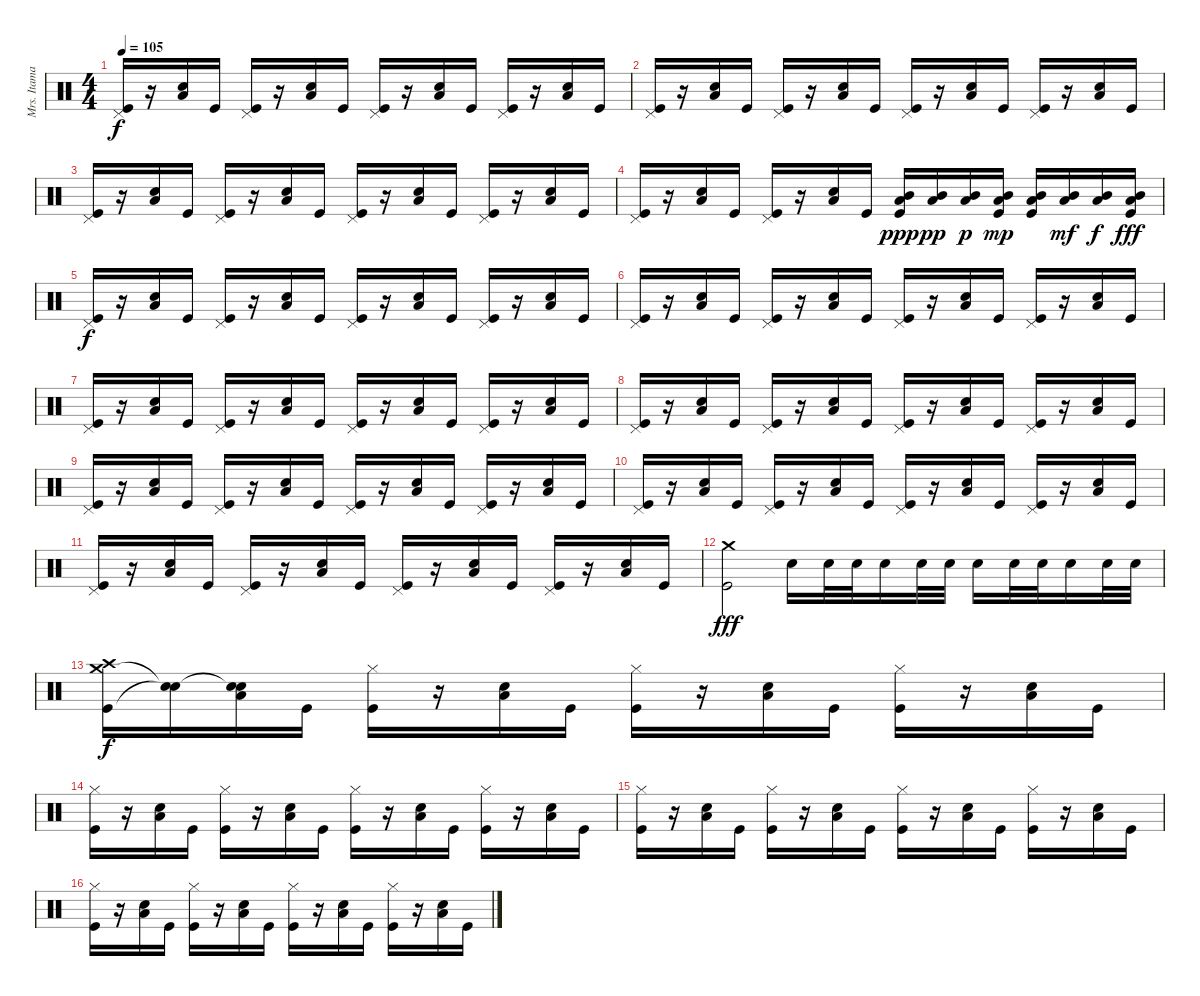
\track ("Mrs. Itamar" "Mrs. Itama") {instrument percussion}
\staff {score}
\articulation defaults
\ts (4 4)
\tempo 105
\clef neutral
\ks c
("Kick (hit)" "Pedal Hi-Hat (hit)").16{dy f} r.16 ("Electric Snare (hit)" "Low Tom (hit)").16 "Kick (hit)".16 ("Kick (hit)" "Pedal Hi-Hat (hit)").16 r.16 ("Electric Snare (hit)" "Low Tom (hit)").16 "Kick (hit)".16 ("Kick (hit)" "Pedal Hi-Hat (hit)").16 r.16 ("Electric Snare (hit)" "Low Tom (hit)").16 "Kick (hit)".16 ("Kick (hit)" "Pedal Hi-Hat (hit)").16 r.16 ("Electric Snare (hit)" "Low Tom (hit)").16 "Kick (hit)".16 |
("Kick (hit)" "Pedal Hi-Hat (hit)").16 r.16 ("Electric Snare (hit)" "Low Tom (hit)").16 "Kick (hit)".16 ("Kick (hit)" "Pedal Hi-Hat (hit)").16 r.16 ("Electric Snare (hit)" "Low Tom (hit)").16 "Kick (hit)".16 ("Kick (hit)" "Pedal Hi-Hat (hit)").16 r.16 ("Electric Snare (hit)" "Low Tom (hit)").16 "Kick (hit)".16 ("Kick (hit)" "Pedal Hi-Hat (hit)").16 r.16 ("Electric Snare (hit)" "Low Tom (hit)").16 "Kick (hit)".16 |
("Kick (hit)" "Pedal Hi-Hat (hit)").16 r.16 ("Electric Snare (hit)" "Low Tom (hit)").16 "Kick (hit)".16 ("Kick (hit)" "Pedal Hi-Hat (hit)").16 r.16 ("Electric Snare (hit)" "Low Tom (hit)").16 "Kick (hit)".16 ("Kick (hit)" "Pedal Hi-Hat (hit)").16 r.16 ("Electric Snare (hit)" "Low Tom (hit)").16 "Kick (hit)".16 ("Kick (hit)" "Pedal Hi-Hat (hit)").16 r.16 ("Electric Snare (hit)" "Low Tom (hit)").16 "Kick (hit)".16 |
("Kick (hit)" "Pedal Hi-Hat (hit)").16 r.16 ("Electric Snare (hit)" "Low Tom (hit)").16 "Kick (hit)".16 ("Kick (hit)" "Pedal Hi-Hat (hit)").16 r.16 ("Electric Snare (hit)" "Low Tom (hit)").16 "Kick (hit)".16 ("Kick (hit)" "Low Tom (hit)" "Mid Tom (hit)").16{dy ppp} ("Low Tom (hit)" "Mid Tom (hit)").16{dy pp} ("Low Tom (hit)" "Mid Tom (hit)").16{dy p} ("Kick (hit)" "Low Tom (hit)" "Mid Tom (hit)").16{dy mp} ("Kick (hit)" "Low Tom (hit)" "Mid Tom (hit)").16 ("Low Tom (hit)" "Mid Tom (hit)").16{dy mf} ("Low Tom (hit)" "Mid Tom (hit)").16{dy f} ("Kick (hit)" "Low Tom (hit)" "Mid Tom (hit)").16{dy fff} |
("Kick (hit)" "Pedal Hi-Hat (hit)").16{dy f} r.16 ("Electric Snare (hit)" "Low Tom (hit)").16 "Kick (hit)".16 ("Kick (hit)" "Pedal Hi-Hat (hit)").16 r.16 ("Electric Snare (hit)" "Low Tom (hit)").16 "Kick (hit)".16 ("Kick (hit)" "Pedal Hi-Hat (hit)").16 r.16 ("Electric Snare (hit)" "Low Tom (hit)").16 "Kick (hit)".16 ("Kick (hit)" "Pedal Hi-Hat (hit)").16 r.16 ("Electric Snare (hit)" "Low Tom (hit)").16 "Kick (hit)".16 |
("Kick (hit)" "Pedal Hi-Hat (hit)").16 r.16 ("Electric Snare (hit)" "Low Tom (hit)").16 "Kick (hit)".16 ("Kick (hit)" "Pedal Hi-Hat (hit)").16 r.16 ("Electric Snare (hit)" "Low Tom (hit)").16 "Kick (hit)".16 ("Kick (hit)" "Pedal Hi-Hat (hit)").16 r.16 ("Electric Snare (hit)" "Low Tom (hit)").16 "Kick (hit)".16 ("Kick (hit)" "Pedal Hi-Hat (hit)").16 r.16 ("Electric Snare (hit)" "Low Tom (hit)").16 "Kick (hit)".16 |
("Kick (hit)" "Pedal Hi-Hat (hit)").16 r.16 ("Electric Snare (hit)" "Low Tom (hit)").16 "Kick (hit)".16 ("Kick (hit)" "Pedal Hi-Hat (hit)").16 r.16 ("Electric Snare (hit)" "Low Tom (hit)").16 "Kick (hit)".16 ("Kick (hit)" "Pedal Hi-Hat (hit)").16 r.16 ("Electric Snare (hit)" "Low Tom (hit)").16 "Kick (hit)".16 ("Kick (hit)" "Pedal Hi-Hat (hit)").16 r.16 ("Electric Snare (hit)" "Low Tom (hit)").16 "Kick (hit)".16 |
("Kick (hit)" "Pedal Hi-Hat (hit)").16 r.16 ("Electric Snare (hit)" "Low Tom (hit)").16 "Kick (hit)".16 ("Kick (hit)" "Pedal Hi-Hat (hit)").16 r.16 ("Electric Snare (hit)" "Low Tom (hit)").16 "Kick (hit)".16 ("Kick (hit)" "Pedal Hi-Hat (hit)").16 r.16 ("Electric Snare (hit)" "Low Tom (hit)").16 "Kick (hit)".16 ("Kick (hit)" "Pedal Hi-Hat (hit)").16 r.16 ("Electric Snare (hit)" "Low Tom (hit)").16 "Kick (hit)".16 |
("Kick (hit)" "Pedal Hi-Hat (hit)").16 r.16 ("Electric Snare (hit)" "Low Tom (hit)").16 "Kick (hit)".16 ("Kick (hit)" "Pedal Hi-Hat (hit)").16 r.16 ("Electric Snare (hit)" "Low Tom (hit)").16 "Kick (hit)".16 ("Kick (hit)" "Pedal Hi-Hat (hit)").16 r.16 ("Electric Snare (hit)" "Low Tom (hit)").16 "Kick (hit)".16 ("Kick (hit)" "Pedal Hi-Hat (hit)").16 r.16 ("Electric Snare (hit)" "Low Tom (hit)").16 "Kick (hit)".16 |
("Kick (hit)" "Pedal Hi-Hat (hit)").16 r.16 ("Electric Snare (hit)" "Low Tom (hit)").16 "Kick (hit)".16 ("Kick (hit)" "Pedal Hi-Hat (hit)").16 r.16 ("Electric Snare (hit)" "Low Tom (hit)").16 "Kick (hit)".16 ("Kick (hit)" "Pedal Hi-Hat (hit)").16 r.16 ("Electric Snare (hit)" "Low Tom (hit)").16 "Kick (hit)".16 ("Kick (hit)" "Pedal Hi-Hat (hit)").16 r.16 ("Electric Snare (hit)" "Low Tom (hit)").16 "Kick (hit)".16 |
("Kick (hit)" "Pedal Hi-Hat (hit)").16 r.16 ("Electric Snare (hit)" "Low Tom (hit)").16 "Kick (hit)".16 ("Kick (hit)" "Pedal Hi-Hat (hit)").16 r.16 ("Electric Snare (hit)" "Low Tom (hit)").16 "Kick (hit)".16 ("Kick (hit)" "Pedal Hi-Hat (hit)").16 r.16 ("Electric Snare (hit)" "Low Tom (hit)").16 "Kick (hit)".16 ("Kick (hit)" "Pedal Hi-Hat (hit)").16 r.16 ("Electric Snare (hit)" "Low Tom (hit)").16 "Kick (hit)".16 |
("Kick (hit)" "Crash medium (hit)").2{dy fff} "Electric Snare (hit)".16 "Electric Snare (hit)".32 "Electric Snare (hit)".32 "Electric Snare (hit)".16 "Electric Snare (hit)".32 "Electric Snare (hit)".32 "Electric Snare (hit)".16 "Electric Snare (hit)".32 "Electric Snare (hit)".32 "Electric Snare (hit)".16 "Electric Snare (hit)".32 "Electric Snare (hit)".32 |
("Crash medium (hit)" "Kick (hit)" "Crash high (hit)").16{dy f} ("Snare (hit)"{t} "Snare (hit)"{t}).16 ("Electric Snare (hit)" "Snare (hit)"{t} "Low Tom (hit)").16 "Kick (hit)".16 ("Kick (hit)" "Hi-Hat (closed)").16 r.16 ("Electric Snare (hit)" "Low Tom (hit)").16 "Kick (hit)".16 ("Kick (hit)" "Hi-Hat (closed)").16 r.16 ("Electric Snare (hit)" "Low Tom (hit)").16 "Kick (hit)".16 ("Kick (hit)" "Hi-Hat (closed)").16 r.16 ("Electric Snare (hit)" "Low Tom (hit)").16 "Kick (hit)".16 |
("Kick (hit)" "Hi-Hat (closed)").16 r.16 ("Electric Snare (hit)" "Low Tom (hit)").16 "Kick (hit)".16 ("Kick (hit)" "Hi-Hat (closed)").16 r.16 ("Electric Snare (hit)" "Low Tom (hit)").16 "Kick (hit)".16 ("Kick (hit)" "Hi-Hat (closed)").16 r.16 ("Electric Snare (hit)" "Low Tom (hit)").16 "Kick (hit)".16 ("Kick (hit)" "Hi-Hat (closed)").16 r.16 ("Electric Snare (hit)" "Low Tom (hit)").16 "Kick (hit)".16 |
("Kick (hit)" "Hi-Hat (closed)").16 r.16 ("Electric Snare (hit)" "Low Tom (hit)").16 "Kick (hit)".16 ("Kick (hit)" "Hi-Hat (closed)").16 r.16 ("Electric Snare (hit)" "Low Tom (hit)").16 "Kick (hit)".16 ("Kick (hit)" "Hi-Hat (closed)").16 r.16 ("Electric Snare (hit)" "Low Tom (hit)").16 "Kick (hit)".16 ("Kick (hit)" "Hi-Hat (closed)").16 r.16 ("Electric Snare (hit)" "Low Tom (hit)").16 "Kick (hit)".16 |
("Kick (hit)" "Hi-Hat (closed)").16 r.16 ("Electric Snare (hit)" "Low Tom (hit)").16 "Kick (hit)".16 ("Kick (hit)" "Hi-Hat (closed)").16 r.16 ("Electric Snare (hit)" "Low Tom (hit)").16 "Kick (hit)".16 ("Kick (hit)" "Hi-Hat (closed)").16 r.16 ("Electric Snare (hit)" "Low Tom (hit)").16 "Kick (hit)".16 ("Kick (hit)" "Hi-Hat (closed)").16 r.16 ("Electric Snare (hit)" "Low Tom (hit)").16 "Kick (hit)".16
